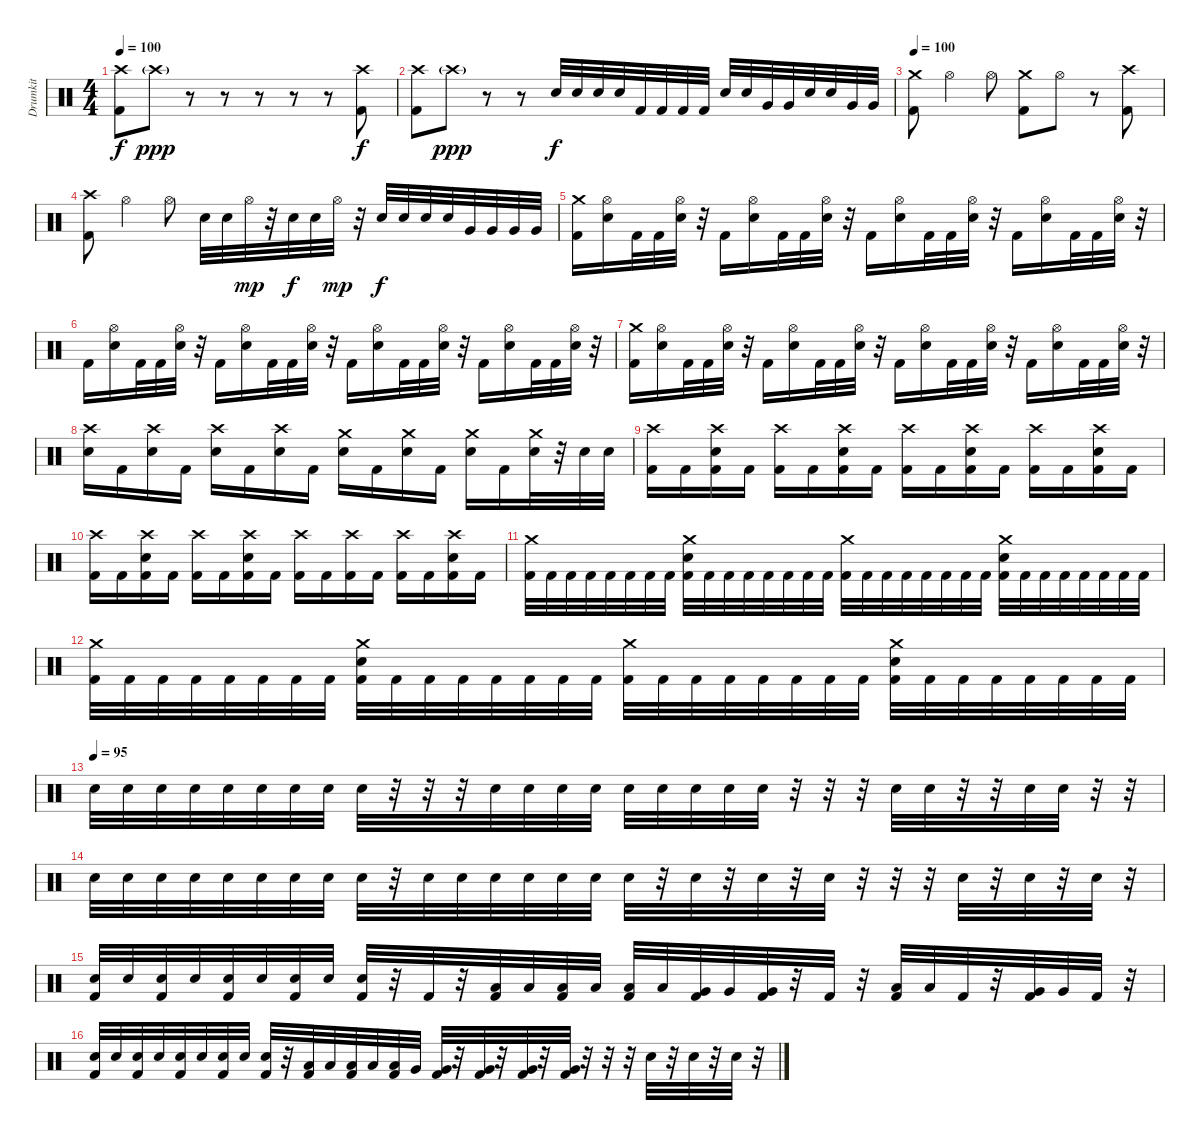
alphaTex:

\track ("Drumkit" "Drumkit") {instrument percussion}
\staff {score}
\articulation defaults
\ts (4 4)
\tempo 100
\clef neutral
\ks c
("Crash high (hit)" "Kick (hit) 2").8{dy f} "Crash high (hit)"{g}.8{dy ppp} r.8 r.8 r.8 r.8 r.8 ("Crash high (hit)" "Kick (hit) 2").8{dy f} |
("Crash high (hit)" "Kick (hit) 2").8 "Crash high (hit)"{g}.8{dy ppp} r.8 r.8 "Electric Snare (hit)".32{dy f} "Electric Snare (hit)".32 "Electric Snare (hit)".32 "Electric Snare (hit)".32 "Kick (hit) 2".32 "Kick (hit) 2".32 "Kick (hit) 2".32 "Kick (hit) 2".32 "Electric Snare (hit)".32 "Electric Snare (hit)".32 "Very Low Tom (hit)".32 "Very Low Tom (hit)".32 "Electric Snare (hit)".32 "Electric Snare (hit)".32 "Very Low Tom (hit)".32 "Very Low Tom (hit)".32 |
\tempo 100
("Crash medium (hit)" "Kick (hit) 2").8 "Hi-Hat (open)".4 "Hi-Hat (open)".8 ("Crash medium (hit)" "Kick (hit) 2").8 "Hi-Hat (open)".8 r.8 ("Crash high (hit)" "Kick (hit) 2").8 |
("Crash high (hit)" "Kick (hit) 2").8 "Hi-Hat (open)".4 "Hi-Hat (open)".8 "Electric Snare (hit)".32 "Electric Snare (hit)".32 "Hi-Hat (open)".32{dy mp} r.32 "Electric Snare (hit)".32{dy f} "Electric Snare (hit)".32 "Hi-Hat (open)".32{dy mp} r.32 "Electric Snare (hit)".32{dy f} "Electric Snare (hit)".32 "Electric Snare (hit)".32 "Electric Snare (hit)".32 "Very Low Tom (hit)".32 "Very Low Tom (hit)".32 "Very Low Tom (hit)".32 "Very Low Tom (hit)".32 |
("Crash medium (hit)" "Kick (hit) 2").16 ("Hi-Hat (open)" "Electric Snare (hit)").16 "Kick (hit) 2".32 "Kick (hit) 2".32 ("Hi-Hat (open)" "Electric Snare (hit)").32 r.32 "Kick (hit) 2".16 ("Hi-Hat (open)" "Electric Snare (hit)").16 "Kick (hit) 2".32 "Kick (hit) 2".32 ("Hi-Hat (open)" "Electric Snare (hit)").32 r.32 "Kick (hit) 2".16 ("Hi-Hat (open)" "Electric Snare (hit)").16 "Kick (hit) 2".32 "Kick (hit) 2".32 ("Hi-Hat (open)" "Electric Snare (hit)").32 r.32 "Kick (hit) 2".16 ("Hi-Hat (open)" "Electric Snare (hit)").16 "Kick (hit) 2".32 "Kick (hit) 2".32 ("Hi-Hat (open)" "Electric Snare (hit)").32 r.32 |
"Kick (hit) 2".16 ("Hi-Hat (open)" "Electric Snare (hit)").16 "Kick (hit) 2".32 "Kick (hit) 2".32 ("Hi-Hat (open)" "Electric Snare (hit)").32 r.32 "Kick (hit) 2".16 ("Hi-Hat (open)" "Electric Snare (hit)").16 "Kick (hit) 2".32 "Kick (hit) 2".32 ("Hi-Hat (open)" "Electric Snare (hit)").32 r.32 "Kick (hit) 2".16 ("Hi-Hat (open)" "Electric Snare (hit)").16 "Kick (hit) 2".32 "Kick (hit) 2".32 ("Hi-Hat (open)" "Electric Snare (hit)").32 r.32 "Kick (hit) 2".16 ("Hi-Hat (open)" "Electric Snare (hit)").16 "Kick (hit) 2".32 "Kick (hit) 2".32 ("Hi-Hat (open)" "Electric Snare (hit)").32 r.32 |
("Crash medium (hit)" "Kick (hit) 2").16 ("Hi-Hat (open)" "Electric Snare (hit)").16 "Kick (hit) 2".32 "Kick (hit) 2".32 ("Hi-Hat (open)" "Electric Snare (hit)").32 r.32 "Kick (hit) 2".16 ("Hi-Hat (open)" "Electric Snare (hit)").16 "Kick (hit) 2".32 "Kick (hit) 2".32 ("Hi-Hat (open)" "Electric Snare (hit)").32 r.32 "Kick (hit) 2".16 ("Hi-Hat (open)" "Electric Snare (hit)").16 "Kick (hit) 2".32 "Kick (hit) 2".32 ("Hi-Hat (open)" "Electric Snare (hit)").32 r.32 "Kick (hit) 2".16 ("Hi-Hat (open)" "Electric Snare (hit)").16 "Kick (hit) 2".32 "Kick (hit) 2".32 ("Hi-Hat (open)" "Electric Snare (hit)").32 r.32 |
("Crash high (hit)" "Electric Snare (hit)").16 "Kick (hit) 2".16 ("Crash high (hit)" "Electric Snare (hit)").16 "Kick (hit) 2".16 ("Crash high (hit)" "Electric Snare (hit)").16 "Kick (hit) 2".16 ("Crash high (hit)" "Electric Snare (hit)").16 "Kick (hit) 2".16 ("Crash medium (hit)" "Electric Snare (hit)").16 "Kick (hit) 2".16 ("Crash medium (hit)" "Electric Snare (hit)").16 "Kick (hit) 2".16 ("Crash medium (hit)" "Electric Snare (hit)").16 "Kick (hit) 2".16 ("Crash medium (hit)" "Electric Snare (hit)").32 r.32 "Electric Snare (hit)".32 "Electric Snare (hit)".32 |
("Crash high (hit)" "Kick (hit) 2").16 "Kick (hit) 2".16 ("Crash high (hit)" "Electric Snare (hit)" "Kick (hit) 2").16 "Kick (hit) 2".16 ("Crash high (hit)" "Kick (hit) 2").16 "Kick (hit) 2".16 ("Crash high (hit)" "Electric Snare (hit)" "Kick (hit) 2").16 "Kick (hit) 2".16 ("Crash high (hit)" "Kick (hit) 2").16 "Kick (hit) 2".16 ("Crash high (hit)" "Electric Snare (hit)" "Kick (hit) 2").16 "Kick (hit) 2".16 ("Crash high (hit)" "Kick (hit) 2").16 "Kick (hit) 2".16 ("Crash high (hit)" "Electric Snare (hit)" "Kick (hit) 2").16 "Kick (hit) 2".16 |
("Crash high (hit)" "Kick (hit) 2").16 "Kick (hit) 2".16 ("Crash high (hit)" "Electric Snare (hit)" "Kick (hit) 2").16 "Kick (hit) 2".16 ("Crash high (hit)" "Kick (hit) 2").16 "Kick (hit) 2".16 ("Crash high (hit)" "Electric Snare (hit)" "Kick (hit) 2").16 "Kick (hit) 2".16 ("Crash high (hit)" "Kick (hit) 2").16 "Kick (hit) 2".16 ("Crash high (hit)" "Kick (hit) 2").16 "Kick (hit) 2".16 ("Crash high (hit)" "Kick (hit) 2").16 "Kick (hit) 2".16 ("Crash high (hit)" "Electric Snare (hit)" "Kick (hit) 2").16 "Kick (hit) 2".16 |
("Crash medium (hit)" "Kick (hit) 2").32 "Kick (hit) 2".32 "Kick (hit) 2".32 "Kick (hit) 2".32 "Kick (hit) 2".32 "Kick (hit) 2".32 "Kick (hit) 2".32 "Kick (hit) 2".32 ("Crash medium (hit)" "Electric Snare (hit)" "Kick (hit) 2").32 "Kick (hit) 2".32 "Kick (hit) 2".32 "Kick (hit) 2".32 "Kick (hit) 2".32 "Kick (hit) 2".32 "Kick (hit) 2".32 "Kick (hit) 2".32 ("Crash medium (hit)" "Kick (hit) 2").32 "Kick (hit) 2".32 "Kick (hit) 2".32 "Kick (hit) 2".32 "Kick (hit) 2".32 "Kick (hit) 2".32 "Kick (hit) 2".32 "Kick (hit) 2".32 ("Crash medium (hit)" "Electric Snare (hit)" "Kick (hit) 2").32 "Kick (hit) 2".32 "Kick (hit) 2".32 "Kick (hit) 2".32 "Kick (hit) 2".32 "Kick (hit) 2".32 "Kick (hit) 2".32 "Kick (hit) 2".32 |
("Crash medium (hit)" "Kick (hit) 2").32 "Kick (hit) 2".32 "Kick (hit) 2".32 "Kick (hit) 2".32 "Kick (hit) 2".32 "Kick (hit) 2".32 "Kick (hit) 2".32 "Kick (hit) 2".32 ("Crash medium (hit)" "Electric Snare (hit)" "Kick (hit) 2").32 "Kick (hit) 2".32 "Kick (hit) 2".32 "Kick (hit) 2".32 "Kick (hit) 2".32 "Kick (hit) 2".32 "Kick (hit) 2".32 "Kick (hit) 2".32 ("Crash medium (hit)" "Kick (hit) 2").32 "Kick (hit) 2".32 "Kick (hit) 2".32 "Kick (hit) 2".32 "Kick (hit) 2".32 "Kick (hit) 2".32 "Kick (hit) 2".32 "Kick (hit) 2".32 ("Crash medium (hit)" "Electric Snare (hit)" "Kick (hit) 2").32 "Kick (hit) 2".32 "Kick (hit) 2".32 "Kick (hit) 2".32 "Kick (hit) 2".32 "Kick (hit) 2".32 "Kick (hit) 2".32 "Kick (hit) 2".32 |
\tempo (95)
"Electric Snare (hit)".32 "Electric Snare (hit)".32 "Electric Snare (hit)".32 "Electric Snare (hit)".32 "Electric Snare (hit)".32 "Electric Snare (hit)".32 "Electric Snare (hit)".32 "Electric Snare (hit)".32 "Electric Snare (hit)".32 r.32 r.32 r.32 "Electric Snare (hit)".32 "Electric Snare (hit)".32 "Electric Snare (hit)".32 "Electric Snare (hit)".32 "Electric Snare (hit)".32 "Electric Snare (hit)".32 "Electric Snare (hit)".32 "Electric Snare (hit)".32 "Electric Snare (hit)".32 r.32 r.32 r.32 "Electric Snare (hit)".32 "Electric Snare (hit)".32 r.32 r.32 "Electric Snare (hit)".32 "Electric Snare (hit)".32 r.32 r.32 |
"Electric Snare (hit)".32 "Electric Snare (hit)".32 "Electric Snare (hit)".32 "Electric Snare (hit)".32 "Electric Snare (hit)".32 "Electric Snare (hit)".32 "Electric Snare (hit)".32 "Electric Snare (hit)".32 "Electric Snare (hit)".32 r.32 "Electric Snare (hit)".32 "Electric Snare (hit)".32 "Electric Snare (hit)".32 "Electric Snare (hit)".32 "Electric Snare (hit)".32 "Electric Snare (hit)".32 "Electric Snare (hit)".32 r.32 "Electric Snare (hit)".32 r.32 "Electric Snare (hit)".32 r.32 "Electric Snare (hit)".32 r.32 r.32 r.32 "Electric Snare (hit)".32 r.32 "Electric Snare (hit)".32 r.32 "Electric Snare (hit)".32 r.32 |
("Electric Snare (hit)" "Kick (hit) 2").32 "Electric Snare (hit)".32 ("Electric Snare (hit)" "Kick (hit) 2").32 "Electric Snare (hit)".32 ("Electric Snare (hit)" "Kick (hit) 2").32 "Electric Snare (hit)".32 ("Electric Snare (hit)" "Kick (hit) 2").32 "Electric Snare (hit)".32 ("Electric Snare (hit)" "Kick (hit) 2").32 r.32 "Kick (hit) 2".32 r.32 ("Low Tom (hit)" "Kick (hit) 2").32 "Low Tom (hit)".32 ("Low Tom (hit)" "Kick (hit) 2").32 "Low Tom (hit)".32 ("Low Tom (hit)" "Kick (hit) 2").32 "Low Tom (hit)".32 ("Very Low Tom (hit)" "Kick (hit) 2").32 "Very Low Tom (hit)".32 ("Very Low Tom (hit)" "Kick (hit) 2").32 r.32 "Kick (hit) 2".32 r.32 ("Low Tom (hit)" "Kick (hit) 2").32 "Low Tom (hit)".32 "Kick (hit) 2".32 r.32 ("Very Low Tom (hit)" "Kick (hit) 2").32 "Very Low Tom (hit)".32 "Kick (hit) 2".32 r.32 |
("Electric Snare (hit)" "Kick (hit) 2").32 "Electric Snare (hit)".32 ("Electric Snare (hit)" "Kick (hit) 2").32 "Electric Snare (hit)".32 ("Electric Snare (hit)" "Kick (hit) 2").32 "Electric Snare (hit)".32 ("Electric Snare (hit)" "Kick (hit) 2").32 "Electric Snare (hit)".32 ("Electric Snare (hit)" "Kick (hit) 2").32 r.32 ("Low Tom (hit)" "Kick (hit) 2").32 "Low Tom (hit)".32 ("Low Tom (hit)" "Kick (hit) 2").32 "Low Tom (hit)".32 ("Low Tom (hit)" "Kick (hit) 2").32 "Very Low Tom (hit)".32 ("Very Low Tom (hit)" "Kick (hit) 2").32 r.32 ("Very Low Tom (hit)" "Kick (hit) 2").32 r.32 ("Very Low Tom (hit)" "Kick (hit) 2").32 r.32 ("Very Low Tom (hit)" "Kick (hit) 2").32 r.32 r.32 r.32 "Electric Snare (hit)".32 r.32 "Electric Snare (hit)".32 r.32 "Electric Snare (hit)".32 r.32
